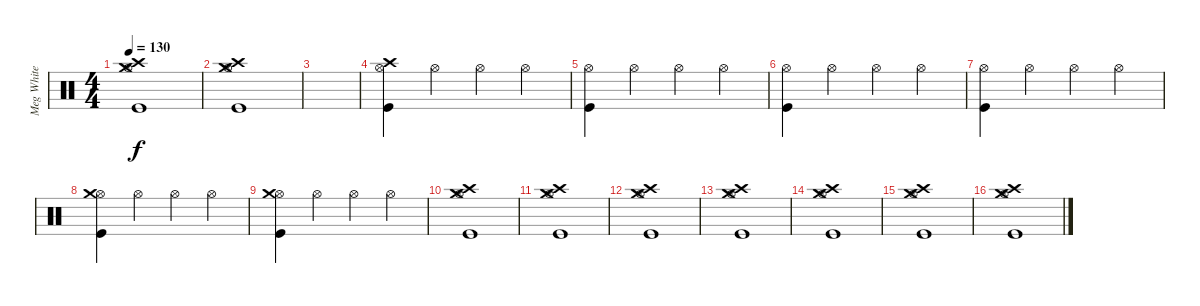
\track ("Meg White" "Meg White") {instrument percussion}
\staff {score}
\articulation defaults
\ts (4 4)
\tempo 130
\clef neutral
\ks c
("Hi-Hat (open)" "Crash medium (hit)" "Crash high (hit)" "Kick (hit)").1{dy f} |
("Hi-Hat (open)" "Crash medium (hit)" "Crash high (hit)" "Kick (hit)").1 |
|
("Hi-Hat (open)" "Crash high (hit)" "Kick (hit)").4 "Hi-Hat (open)".4 "Hi-Hat (open)".4 "Hi-Hat (open)".4 |
("Hi-Hat (open)" "Kick (hit)").4 "Hi-Hat (open)".4 "Hi-Hat (open)".4 "Hi-Hat (open)".4 |
("Hi-Hat (open)" "Kick (hit)").4 "Hi-Hat (open)".4 "Hi-Hat (open)".4 "Hi-Hat (open)".4 |
("Hi-Hat (open)" "Kick (hit)").4 "Hi-Hat (open)".4 "Hi-Hat (open)".4 "Hi-Hat (open)".4 |
("Hi-Hat (open)" "Crash medium (hit)" "Kick (hit)").4 "Hi-Hat (open)".4 "Hi-Hat (open)".4 "Hi-Hat (open)".4 |
("Hi-Hat (open)" "Crash medium (hit)" "Kick (hit)").4 "Hi-Hat (open)".4 "Hi-Hat (open)".4 "Hi-Hat (open)".4 |
("Hi-Hat (open)" "Crash medium (hit)" "Crash high (hit)" "Kick (hit)").1 |
("Hi-Hat (open)" "Crash medium (hit)" "Crash high (hit)" "Kick (hit)").1 |
("Hi-Hat (open)" "Crash medium (hit)" "Crash high (hit)" "Kick (hit)").1 |
("Hi-Hat (open)" "Crash medium (hit)" "Crash high (hit)" "Kick (hit)").1 |
("Hi-Hat (open)" "Crash medium (hit)" "Crash high (hit)" "Kick (hit)").1 |
("Hi-Hat (open)" "Crash medium (hit)" "Crash high (hit)" "Kick (hit)").1 |
("Hi-Hat (open)" "Crash medium (hit)" "Crash high (hit)" "Kick (hit)").1
